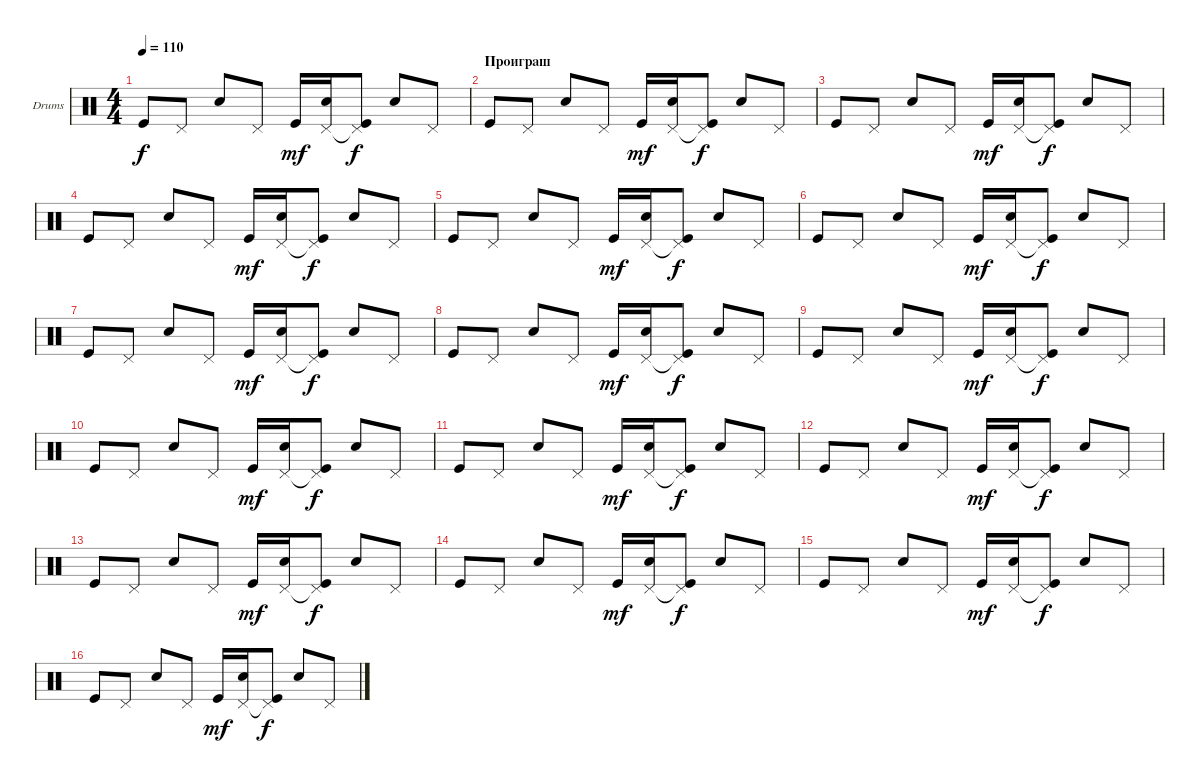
\defaultSystemsLayout 4
\bracketExtendMode groupsimilarinstruments
\firstSystemTrackNameOrientation horizontal
\otherSystemsTrackNameOrientation horizontal
\track ("Е. Кулаков" "Drums") {instrument percussion}
\staff {score}
\articulation defaults
\ts (4 4)
\tempo 110
\clef neutral
\ks c "Kick (hit)".8{dy f} "Pedal Hi-Hat (hit)".8 "Snare (hit) 2".8 "Pedal Hi-Hat (hit)".8 "Kick (hit)".16{dy mf}
("Snare (hit) 2" "Pedal Hi-Hat (hit)").16 ("Kick (hit)" "Pedal Hi-Hat (hit)"{t}).8{dy f} "Snare (hit) 2".8 "Pedal Hi-Hat (hit)".8 |
\section ("" "Проиграш")
"Kick (hit)".8 "Pedal Hi-Hat (hit)".8 "Snare (hit) 2".8 "Pedal Hi-Hat (hit)".8 "Kick (hit)".16{dy mf} ("Snare (hit) 2" "Pedal Hi-Hat (hit)").16 ("Kick (hit)" "Pedal Hi-Hat (hit)"{t}).8{dy f} "Snare (hit) 2".8 "Pedal Hi-Hat (hit)".8 |
"Kick (hit)".8 "Pedal Hi-Hat (hit)".8 "Snare (hit) 2".8 "Pedal Hi-Hat (hit)".8 "Kick (hit)".16{dy mf} ("Snare (hit) 2" "Pedal Hi-Hat (hit)").16 ("Kick (hit)" "Pedal Hi-Hat (hit)"{t}).8{dy f} "Snare (hit) 2".8 "Pedal Hi-Hat (hit)".8 |
"Kick (hit)".8 "Pedal Hi-Hat (hit)".8 "Snare (hit) 2".8 "Pedal Hi-Hat (hit)".8 "Kick (hit)".16{dy mf} ("Snare (hit) 2" "Pedal Hi-Hat (hit)").16 ("Kick (hit)" "Pedal Hi-Hat (hit)"{t}).8{dy f} "Snare (hit) 2".8 "Pedal Hi-Hat (hit)".8 |
"Kick (hit)".8 "Pedal Hi-Hat (hit)".8 "Snare (hit) 2".8 "Pedal Hi-Hat (hit)".8 "Kick (hit)".16{dy mf} ("Snare (hit) 2" "Pedal Hi-Hat (hit)").16 ("Kick (hit)" "Pedal Hi-Hat (hit)"{t}).8{dy f} "Snare (hit) 2".8 "Pedal Hi-Hat (hit)".8 |
"Kick (hit)".8 "Pedal Hi-Hat (hit)".8 "Snare (hit) 2".8 "Pedal Hi-Hat (hit)".8 "Kick (hit)".16{dy mf} ("Snare (hit) 2" "Pedal Hi-Hat (hit)").16 ("Kick (hit)" "Pedal Hi-Hat (hit)"{t}).8{dy f} "Snare (hit) 2".8 "Pedal Hi-Hat (hit)".8 |
"Kick (hit)".8 "Pedal Hi-Hat (hit)".8 "Snare (hit) 2".8 "Pedal Hi-Hat (hit)".8 "Kick (hit)".16{dy mf} ("Snare (hit) 2" "Pedal Hi-Hat (hit)").16 ("Kick (hit)" "Pedal Hi-Hat (hit)"{t}).8{dy f} "Snare (hit) 2".8 "Pedal Hi-Hat (hit)".8 |
"Kick (hit)".8 "Pedal Hi-Hat (hit)".8 "Snare (hit) 2".8 "Pedal Hi-Hat (hit)".8 "Kick (hit)".16{dy mf} ("Snare (hit) 2" "Pedal Hi-Hat (hit)").16 ("Kick (hit)" "Pedal Hi-Hat (hit)"{t}).8{dy f} "Snare (hit) 2".8 "Pedal Hi-Hat (hit)".8 |
"Kick (hit)".8 "Pedal Hi-Hat (hit)".8 "Snare (hit) 2".8 "Pedal Hi-Hat (hit)".8 "Kick (hit)".16{dy mf} ("Snare (hit) 2" "Pedal Hi-Hat (hit)").16 ("Kick (hit)" "Pedal Hi-Hat (hit)"{t}).8{dy f} "Snare (hit) 2".8 "Pedal Hi-Hat (hit)".8 |
"Kick (hit)".8 "Pedal Hi-Hat (hit)".8 "Snare (hit) 2".8 "Pedal Hi-Hat (hit)".8 "Kick (hit)".16{dy mf} ("Snare (hit) 2" "Pedal Hi-Hat (hit)").16 ("Kick (hit)" "Pedal Hi-Hat (hit)"{t}).8{dy f} "Snare (hit) 2".8 "Pedal Hi-Hat (hit)".8 |
"Kick (hit)".8 "Pedal Hi-Hat (hit)".8 "Snare (hit) 2".8 "Pedal Hi-Hat (hit)".8 "Kick (hit)".16{dy mf} ("Snare (hit) 2" "Pedal Hi-Hat (hit)").16 ("Kick (hit)" "Pedal Hi-Hat (hit)"{t}).8{dy f} "Snare (hit) 2".8 "Pedal Hi-Hat (hit)".8 |
"Kick (hit)".8 "Pedal Hi-Hat (hit)".8 "Snare (hit) 2".8 "Pedal Hi-Hat (hit)".8 "Kick (hit)".16{dy mf} ("Snare (hit) 2" "Pedal Hi-Hat (hit)").16 ("Kick (hit)" "Pedal Hi-Hat (hit)"{t}).8{dy f} "Snare (hit) 2".8 "Pedal Hi-Hat (hit)".8 |
"Kick (hit)".8 "Pedal Hi-Hat (hit)".8 "Snare (hit) 2".8 "Pedal Hi-Hat (hit)".8 "Kick (hit)".16{dy mf} ("Snare (hit) 2" "Pedal Hi-Hat (hit)").16 ("Kick (hit)" "Pedal Hi-Hat (hit)"{t}).8{dy f} "Snare (hit) 2".8 "Pedal Hi-Hat (hit)".8 |
"Kick (hit)".8 "Pedal Hi-Hat (hit)".8 "Snare (hit) 2".8 "Pedal Hi-Hat (hit)".8 "Kick (hit)".16{dy mf} ("Snare (hit) 2" "Pedal Hi-Hat (hit)").16 ("Kick (hit)" "Pedal Hi-Hat (hit)"{t}).8{dy f} "Snare (hit) 2".8 "Pedal Hi-Hat (hit)".8 |
"Kick (hit)".8 "Pedal Hi-Hat (hit)".8 "Snare (hit) 2".8 "Pedal Hi-Hat (hit)".8 "Kick (hit)".16{dy mf} ("Snare (hit) 2" "Pedal Hi-Hat (hit)").16 ("Kick (hit)" "Pedal Hi-Hat (hit)"{t}).8{dy f} "Snare (hit) 2".8 "Pedal Hi-Hat (hit)".8 |
"Kick (hit)".8 "Pedal Hi-Hat (hit)".8 "Snare (hit) 2".8 "Pedal Hi-Hat (hit)".8 "Kick (hit)".16{dy mf} ("Snare (hit) 2" "Pedal Hi-Hat (hit)").16 ("Kick (hit)" "Pedal Hi-Hat (hit)"{t}).8{dy f} "Snare (hit) 2".8 "Pedal Hi-Hat (hit)".8
